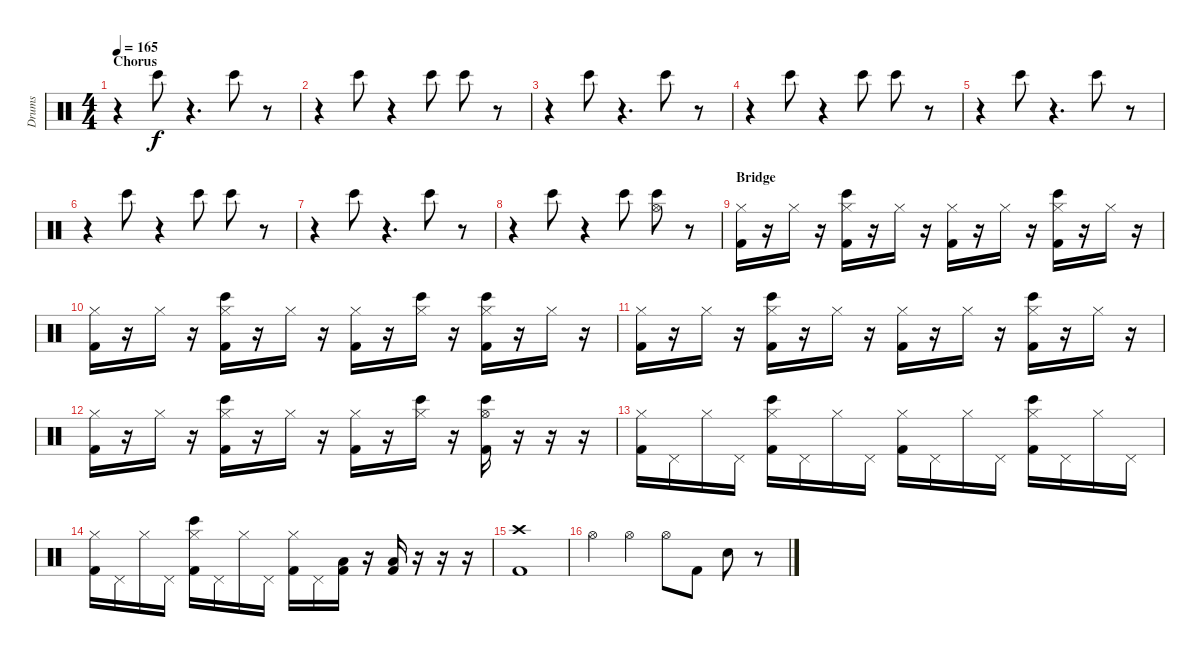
\track ("Drums" "Drums") {instrument percussion}
\staff {score}
\articulation defaults
\ts (4 4)
\section ("" "Chorus")
\tempo 165
\clef neutral
\ks c
r.4{dy f} "Bongo High (hit)".8 r.4{d} "Bongo High (hit)".8 r.8 |
r.4 "Bongo High (hit)".8 r.4 "Bongo High (hit)".8 "Bongo High (hit)".8 r.8 |
r.4 "Bongo High (hit)".8 r.4{d} "Bongo High (hit)".8 r.8 |
r.4 "Bongo High (hit)".8 r.4 "Bongo High (hit)".8 "Bongo High (hit)".8 r.8 |
r.4 "Bongo High (hit)".8 r.4{d} "Bongo High (hit)".8 r.8 |
r.4 "Bongo High (hit)".8 r.4 "Bongo High (hit)".8 "Bongo High (hit)".8 r.8 |
r.4 "Bongo High (hit)".8 r.4{d} "Bongo High (hit)".8 r.8 |
r.4 "Bongo High (hit)".8 r.4 "Bongo High (hit)".8 ("Bongo High (hit)" "Hi-Hat (open)").8 r.8 |
\section ("" "Bridge")
("Hi-Hat (closed)" "Kick (hit) 2").16 r.16 "Hi-Hat (closed)".16 r.16 ("Hi-Hat (closed)" "Kick (hit) 2" "Bongo High (hit)").16 r.16 "Hi-Hat (closed)".16 r.16 ("Hi-Hat (closed)" "Kick (hit) 2").16 r.16 "Hi-Hat (closed)".16 r.16 ("Hi-Hat (closed)" "Kick (hit) 2" "Bongo High (hit)").16 r.16 "Hi-Hat (closed)".16 r.16 |
("Hi-Hat (closed)" "Kick (hit) 2").16 r.16 "Hi-Hat (closed)".16 r.16 ("Hi-Hat (closed)" "Kick (hit) 2" "Bongo High (hit)").16 r.16 "Hi-Hat (closed)".16 r.16 ("Hi-Hat (closed)" "Kick (hit) 2").16 r.16 ("Hi-Hat (closed)" "Bongo High (hit)").16 r.16 ("Hi-Hat (closed)" "Kick (hit) 2" "Bongo High (hit)").16 r.16 "Hi-Hat (closed)".16 r.16 |
("Hi-Hat (closed)" "Kick (hit) 2").16 r.16 "Hi-Hat (closed)".16 r.16 ("Hi-Hat (closed)" "Kick (hit) 2" "Bongo High (hit)").16 r.16 "Hi-Hat (closed)".16 r.16 ("Hi-Hat (closed)" "Kick (hit) 2").16 r.16 "Hi-Hat (closed)".16 r.16 ("Hi-Hat (closed)" "Kick (hit) 2" "Bongo High (hit)").16 r.16 "Hi-Hat (closed)".16 r.16 |
("Hi-Hat (closed)" "Kick (hit) 2").16 r.16 "Hi-Hat (closed)".16 r.16 ("Hi-Hat (closed)" "Kick (hit) 2" "Bongo High (hit)").16 r.16 "Hi-Hat (closed)".16 r.16 ("Hi-Hat (closed)" "Kick (hit) 2").16 r.16 ("Hi-Hat (closed)" "Bongo High (hit)").16 r.16 ("Hi-Hat (open)" "Kick (hit) 2" "Bongo High (hit)").16 r.16 r.16 r.16 |
("Hi-Hat (closed)" "Kick (hit) 2").16 "Pedal Hi-Hat (hit)".16 "Hi-Hat (closed)".16 "Pedal Hi-Hat (hit)".16 ("Hi-Hat (closed)" "Kick (hit) 2" "Bongo High (hit)").16 "Pedal Hi-Hat (hit)".16 "Hi-Hat (closed)".16 "Pedal Hi-Hat (hit)".16 ("Hi-Hat (closed)" "Kick (hit) 2").16 "Pedal Hi-Hat (hit)".16 "Hi-Hat (closed)".16 "Pedal Hi-Hat (hit)".16 ("Hi-Hat (closed)" "Kick (hit) 2" "Bongo High (hit)").16 "Pedal Hi-Hat (hit)".16 "Hi-Hat (closed)".16 "Pedal Hi-Hat (hit)".16 |
("Hi-Hat (closed)" "Kick (hit) 2").16 "Pedal Hi-Hat (hit)".16 "Hi-Hat (closed)".16 "Pedal Hi-Hat (hit)".16 ("Hi-Hat (closed)" "Kick (hit) 2" "Bongo High (hit)").16 "Pedal Hi-Hat (hit)".16 "Hi-Hat (closed)".16 "Pedal Hi-Hat (hit)".16 ("Hi-Hat (closed)" "Kick (hit) 2").16 "Pedal Hi-Hat (hit)".16 ("Kick (hit) 2" "Low Floor Tom (hit)").16 r.16 ("Kick (hit) 2" "Low Floor Tom (hit)").16 r.16 r.16 r.16 |
("Kick (hit) 2" "Crash high (hit)").1 |
"Hi-Hat (open)".4 "Hi-Hat (open)".4 "Hi-Hat (open)".8 "Kick (hit) 2".8 "Electric Snare (hit)".8 r.8
